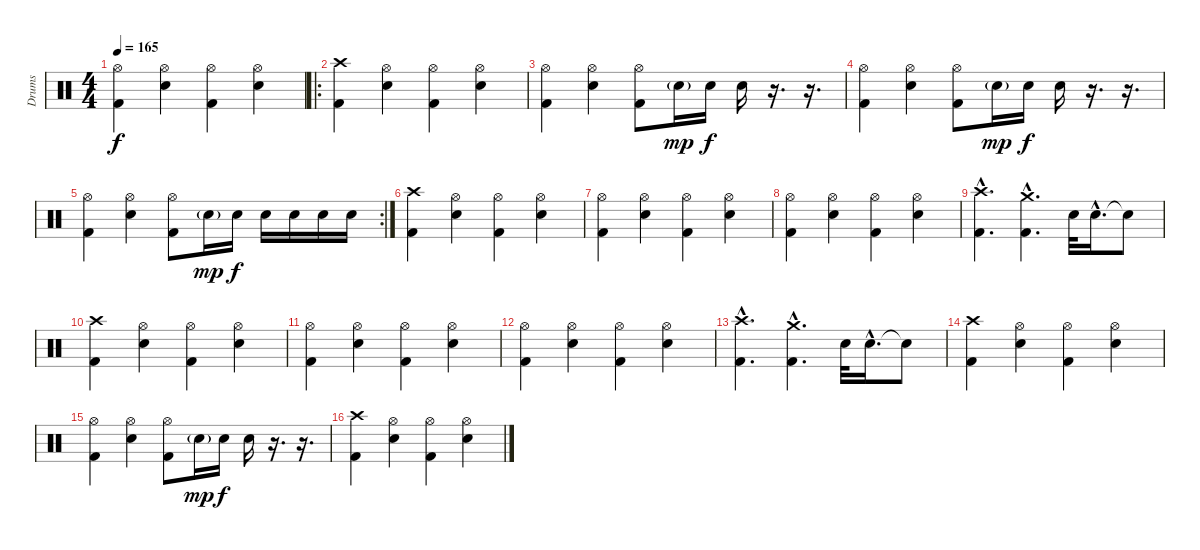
\track ("Drums" "Drums") {instrument percussion}
\staff {score}
\articulation defaults
\ts (4 4)
\tempo 165
\clef neutral
\ks c
("Hi-Hat (open)" "Kick (hit) 2").4{dy f} ("Hi-Hat (open)" "Snare (hit) 2").4 ("Hi-Hat (open)" "Kick (hit) 2").4 ("Hi-Hat (open)" "Snare (hit) 2").4 |
\ro
("Crash high (hit)" "Kick (hit) 2").4 ("Hi-Hat (open)" "Snare (hit) 2").4 ("Hi-Hat (open)" "Kick (hit) 2").4 ("Hi-Hat (open)" "Snare (hit) 2").4 |
("Hi-Hat (open)" "Kick (hit) 2").4 ("Hi-Hat (open)" "Snare (hit) 2").4 ("Hi-Hat (open)" "Kick (hit) 2").8 "Snare (hit) 2"{g}.16{dy mp} "Snare (hit) 2".16{dy f} "Snare (hit) 2".16 r.16{d} r.16{d} |
("Hi-Hat (open)" "Kick (hit) 2").4 ("Hi-Hat (open)" "Snare (hit) 2").4 ("Hi-Hat (open)" "Kick (hit) 2").8 "Snare (hit) 2"{g}.16{dy mp} "Snare (hit) 2".16{dy f} "Snare (hit) 2".16 r.16{d} r.16{d} |
\rc 2
("Hi-Hat (open)" "Kick (hit) 2").4 ("Hi-Hat (open)" "Snare (hit) 2").4 ("Hi-Hat (open)" "Kick (hit) 2").8 "Snare (hit) 2"{g}.16{dy mp} "Snare (hit) 2".16{dy f} "Snare (hit) 2".16 "Snare (hit) 2".16 "Snare (hit) 2".16 "Snare (hit) 2".16 |
("Crash high (hit)" "Kick (hit) 2").4 ("Hi-Hat (open)" "Snare (hit) 2").4 ("Hi-Hat (open)" "Kick (hit) 2").4 ("Hi-Hat (open)" "Snare (hit) 2").4 |
("Hi-Hat (open)" "Kick (hit) 2").4 ("Hi-Hat (open)" "Snare (hit) 2").4 ("Hi-Hat (open)" "Kick (hit) 2").4 ("Hi-Hat (open)" "Snare (hit) 2").4 |
("Hi-Hat (open)" "Kick (hit) 2").4 ("Hi-Hat (open)" "Snare (hit) 2").4 ("Hi-Hat (open)" "Kick (hit) 2").4 ("Hi-Hat (open)" "Snare (hit) 2").4 |
("Crash high (hit)"{hac} "Kick (hit) 2"{hac}).4{d} ("Crash medium (hit)"{hac} "Kick (hit) 2"{hac}).4{d} "Electric Snare (hit)".32 "Electric Snare (hit)"{hac}.16{d} "Electric Snare (hit)"{t}.8 |
("Crash high (hit)" "Kick (hit) 2").4 ("Hi-Hat (open)" "Snare (hit) 2").4 ("Hi-Hat (open)" "Kick (hit) 2").4 ("Hi-Hat (open)" "Snare (hit) 2").4 |
("Hi-Hat (open)" "Kick (hit) 2").4 ("Hi-Hat (open)" "Snare (hit) 2").4 ("Hi-Hat (open)" "Kick (hit) 2").4 ("Hi-Hat (open)" "Snare (hit) 2").4 |
("Hi-Hat (open)" "Kick (hit) 2").4 ("Hi-Hat (open)" "Snare (hit) 2").4 ("Hi-Hat (open)" "Kick (hit) 2").4 ("Hi-Hat (open)" "Snare (hit) 2").4 |
("Crash high (hit)"{hac} "Kick (hit) 2"{hac}).4{d} ("Crash medium (hit)"{hac} "Kick (hit) 2"{hac}).4{d} "Electric Snare (hit)".32 "Electric Snare (hit)"{hac}.16{d} "Electric Snare (hit)"{t}.8 |
("Crash high (hit)" "Kick (hit) 2").4 ("Hi-Hat (open)" "Snare (hit) 2").4 ("Hi-Hat (open)" "Kick (hit) 2").4 ("Hi-Hat (open)" "Snare (hit) 2").4 |
("Hi-Hat (open)" "Kick (hit) 2").4 ("Hi-Hat (open)" "Snare (hit) 2").4 ("Hi-Hat (open)" "Kick (hit) 2").8 "Snare (hit) 2"{g}.16{dy mp} "Snare (hit) 2".16{dy f} "Snare (hit) 2".16 r.16{d} r.16{d} |
("Crash high (hit)" "Kick (hit) 2").4 ("Hi-Hat (open)" "Snare (hit) 2").4 ("Hi-Hat (open)" "Kick (hit) 2").4 ("Hi-Hat (open)" "Snare (hit) 2").4
